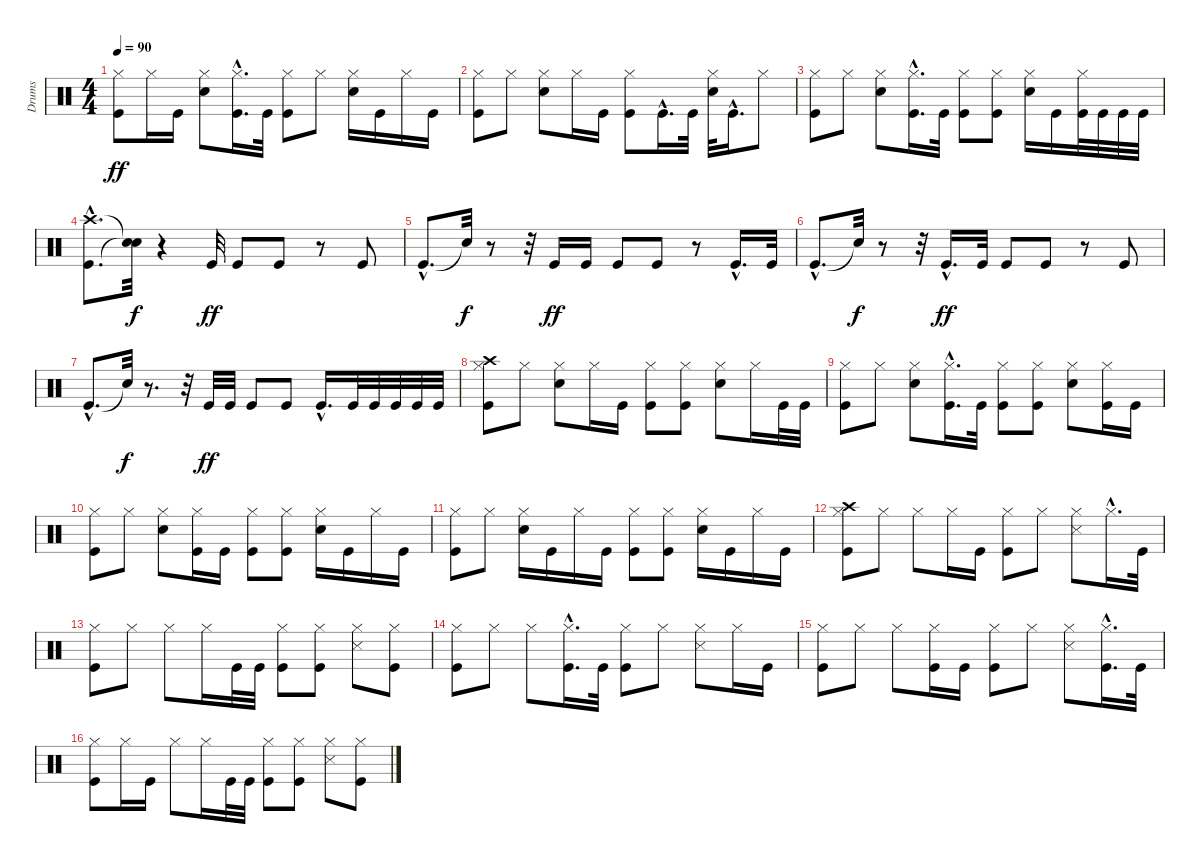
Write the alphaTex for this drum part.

\track ("Drums" "Drums") {instrument percussion}
\staff {score}
\articulation defaults
\ts (4 4)
\tempo 90
\clef neutral
\ks c
("Kick (hit)" "Hi-Hat (closed)").8{dy ff} "Hi-Hat (closed)".16 "Kick (hit)".16 ("Electric Snare (hit)" "Hi-Hat (closed)").8 ("Kick (hit)"{hac} "Hi-Hat (closed)"{hac}).16{d} "Kick (hit)".32 ("Kick (hit)" "Hi-Hat (closed)").8 "Hi-Hat (closed)".8 ("Electric Snare (hit)" "Hi-Hat (closed)").16 "Kick (hit)".16 "Hi-Hat (closed)".16 "Kick (hit)".16 |
("Kick (hit)" "Hi-Hat (closed)").8 "Hi-Hat (closed)".8 ("Electric Snare (hit)" "Hi-Hat (closed)").8 "Hi-Hat (closed)".16 "Kick (hit)".16 ("Kick (hit)" "Hi-Hat (closed)").8 "Kick (hit)"{hac}.16{d} "Kick (hit)".32 ("Electric Snare (hit)" "Hi-Hat (closed)").32 "Kick (hit)"{hac}.16{d} "Hi-Hat (closed)".8 |
("Kick (hit)" "Hi-Hat (closed)").8 "Hi-Hat (closed)".8 ("Electric Snare (hit)" "Hi-Hat (closed)").8 ("Kick (hit)"{hac} "Hi-Hat (closed)"{hac}).16{d} "Kick (hit)".32 ("Kick (hit)" "Hi-Hat (closed)").8 ("Kick (hit)" "Hi-Hat (closed)").8 ("Electric Snare (hit)" "Hi-Hat (closed)").16 "Kick (hit)".16 ("Kick (hit)" "Hi-Hat (closed)").32 "Kick (hit)".32 "Kick (hit)".32 "Kick (hit)".32 |
("Kick (hit)"{hac} "Crash high (hit)"{hac}).8{d} ("Snare (hit)"{t} "Snare (hit)"{t}).32{dy f} r.4 "Kick (hit)".32{dy ff} "Kick (hit)".8 "Kick (hit)".8 r.8 "Kick (hit)".8 |
"Kick (hit)"{hac}.8{d} "Snare (hit)"{t}.32{dy f} r.8 r.32 "Kick (hit)".16{dy ff} "Kick (hit)".16 "Kick (hit)".8 "Kick (hit)".8 r.8 "Kick (hit)"{hac}.16{d} "Kick (hit)".32 |
"Kick (hit)"{hac}.8{d} "Snare (hit)"{t}.32{dy f} r.8 r.32 "Kick (hit)"{hac}.16{d dy ff} "Kick (hit)".32 "Kick (hit)".8 "Kick (hit)".8 r.8 "Kick (hit)".8 |
"Kick (hit)"{hac}.8{d} "Snare (hit)"{t}.32{dy f} r.8{d} r.32 "Kick (hit)".32{dy ff} "Kick (hit)".32 "Kick (hit)".8 "Kick (hit)".8 "Kick (hit)"{hac}.16{d} "Kick (hit)".32 "Kick (hit)".32 "Kick (hit)".32 "Kick (hit)".32 "Kick (hit)".32 |
("Kick (hit)" "Hi-Hat (closed)" "Crash high (hit)").8 "Hi-Hat (closed)".8 ("Electric Snare (hit)" "Hi-Hat (closed)").8 "Hi-Hat (closed)".16 "Kick (hit)".16 ("Kick (hit)" "Hi-Hat (closed)").8 ("Kick (hit)" "Hi-Hat (closed)").8 ("Electric Snare (hit)" "Hi-Hat (closed)").8 "Hi-Hat (closed)".16 "Kick (hit)".32 "Kick (hit)".32 |
("Kick (hit)" "Hi-Hat (closed)").8 "Hi-Hat (closed)".8 ("Electric Snare (hit)" "Hi-Hat (closed)").8 ("Kick (hit)"{hac} "Hi-Hat (closed)"{hac}).16{d} "Kick (hit)".32 ("Kick (hit)" "Hi-Hat (closed)").8 ("Kick (hit)" "Hi-Hat (closed)").8 ("Electric Snare (hit)" "Hi-Hat (closed)").8 ("Kick (hit)" "Hi-Hat (closed)").16 "Kick (hit)".16 |
("Kick (hit)" "Hi-Hat (closed)").8 "Hi-Hat (closed)".8 ("Electric Snare (hit)" "Hi-Hat (closed)").8 ("Kick (hit)" "Hi-Hat (closed)").16 "Kick (hit)".16 ("Kick (hit)" "Hi-Hat (closed)").8 ("Kick (hit)" "Hi-Hat (closed)").8 ("Electric Snare (hit)" "Hi-Hat (closed)").16 "Kick (hit)".16 "Hi-Hat (closed)".16 "Kick (hit)".16 |
("Kick (hit)" "Hi-Hat (closed)").8 "Hi-Hat (closed)".8 ("Electric Snare (hit)" "Hi-Hat (closed)").16 "Kick (hit)".16 "Hi-Hat (closed)".16 "Kick (hit)".16 ("Kick (hit)" "Hi-Hat (closed)").8 ("Kick (hit)" "Hi-Hat (closed)").8 ("Electric Snare (hit)" "Hi-Hat (closed)").16 "Kick (hit)".16 "Hi-Hat (closed)".16 "Kick (hit)".16 |
("Kick (hit)" "Hi-Hat (closed)" "Crash high (hit)").8 "Hi-Hat (closed)".8 "Hi-Hat (closed)".8 "Hi-Hat (closed)".16 "Kick (hit)".16 ("Kick (hit)" "Hi-Hat (closed)").8 "Hi-Hat (closed)".8 ("Snare (side stick) 3" "Hi-Hat (closed)").8 "Hi-Hat (closed)"{hac}.16{d} "Kick (hit)".32 |
("Kick (hit)" "Hi-Hat (closed)").8 "Hi-Hat (closed)".8 "Hi-Hat (closed)".8 "Hi-Hat (closed)".16 "Kick (hit)".32 "Kick (hit)".32 ("Kick (hit)" "Hi-Hat (closed)").8 ("Kick (hit)" "Hi-Hat (closed)").8 ("Snare (side stick) 3" "Hi-Hat (closed)").8 ("Kick (hit)" "Hi-Hat (closed)").8 |
("Kick (hit)" "Hi-Hat (closed)").8 "Hi-Hat (closed)".8 "Hi-Hat (closed)".8 ("Kick (hit)"{hac} "Hi-Hat (closed)"{hac}).16{d} "Kick (hit)".32 ("Kick (hit)" "Hi-Hat (closed)").8 "Hi-Hat (closed)".8 ("Snare (side stick) 3" "Hi-Hat (closed)").8 "Hi-Hat (closed)".16 "Kick (hit)".16 |
("Kick (hit)" "Hi-Hat (closed)").8 "Hi-Hat (closed)".8 "Hi-Hat (closed)".8 ("Kick (hit)" "Hi-Hat (closed)").16 "Kick (hit)".16 ("Kick (hit)" "Hi-Hat (closed)").8 "Hi-Hat (closed)".8 ("Snare (side stick) 3" "Hi-Hat (closed)").8 ("Kick (hit)"{hac} "Hi-Hat (closed)"{hac}).16{d} "Kick (hit)".32 |
("Kick (hit)" "Hi-Hat (closed)").8 "Hi-Hat (closed)".16 "Kick (hit)".16 "Hi-Hat (closed)".8 "Hi-Hat (closed)".16 "Kick (hit)".32 "Kick (hit)".32 ("Kick (hit)" "Hi-Hat (closed)").8 ("Kick (hit)" "Hi-Hat (closed)").8 ("Snare (side stick) 3" "Hi-Hat (closed)").8 ("Kick (hit)" "Hi-Hat (closed)").8
